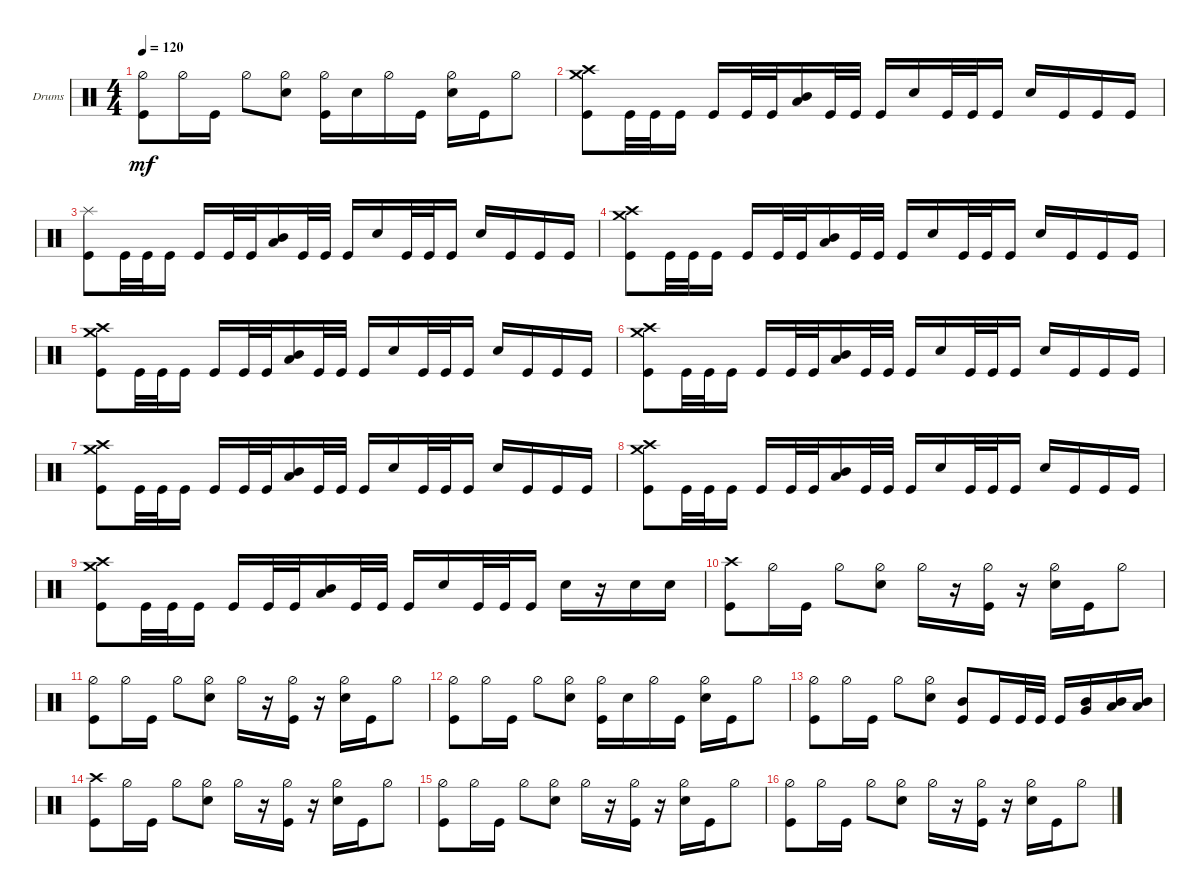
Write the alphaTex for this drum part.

\defaultSystemsLayout 4
\bracketExtendMode groupsimilarinstruments
\firstSystemTrackNameOrientation horizontal
\otherSystemsTrackNameOrientation horizontal
\track ("Drumkit" "Drums") {instrument percussion}
\staff {score}
\articulation defaults
\ts (4 4)
\tempo 120
\clef neutral
\ks c
("Kick (hit)" "Hi-Hat (half)").8{dy mf} "Hi-Hat (half)".16 "Kick (hit)".16 "Hi-Hat (half)".8 ("Snare (hit) 2" "Hi-Hat (half)").8 ("Kick (hit)" "Hi-Hat (half)").16 "Snare (hit) 2".16 "Hi-Hat (half)".16 "Kick (hit)".16 ("Snare (hit) 2" "Hi-Hat (half)").16 "Kick (hit)".16 "Hi-Hat (half)".8 |
("Crash high (hit)" "Crash medium (hit)" "Kick (hit)").8 "Kick (hit)".32 "Kick (hit)".32 "Kick (hit)".16 "Kick (hit)".16 "Kick (hit)".32 "Kick (hit)".32 ("Mid Tom (hit)" "Low Tom (hit)").16 "Kick (hit)".32 "Kick (hit)".32 "Kick (hit)".16 "Snare (hit) 2".16 "Kick (hit)".32 "Kick (hit)".32 "Kick (hit)".16 "Snare (hit) 2".16 "Kick (hit)".16 "Kick (hit)".16 "Kick (hit)".16 |
("Kick (hit)" "Splash (hit)").8 "Kick (hit)".32 "Kick (hit)".32 "Kick (hit)".16 "Kick (hit)".16 "Kick (hit)".32 "Kick (hit)".32 ("Mid Tom (hit)" "Low Tom (hit)").16 "Kick (hit)".32 "Kick (hit)".32 "Kick (hit)".16 "Snare (hit) 2".16 "Kick (hit)".32 "Kick (hit)".32 "Kick (hit)".16 "Snare (hit) 2".16 "Kick (hit)".16 "Kick (hit)".16 "Kick (hit)".16 |
("Crash high (hit)" "Crash medium (hit)" "Kick (hit)").8 "Kick (hit)".32 "Kick (hit)".32 "Kick (hit)".16 "Kick (hit)".16 "Kick (hit)".32 "Kick (hit)".32 ("Mid Tom (hit)" "Low Tom (hit)").16 "Kick (hit)".32 "Kick (hit)".32 "Kick (hit)".16 "Snare (hit) 2".16 "Kick (hit)".32 "Kick (hit)".32 "Kick (hit)".16 "Snare (hit) 2".16 "Kick (hit)".16 "Kick (hit)".16 "Kick (hit)".16 |
("Crash high (hit)" "Crash medium (hit)" "Kick (hit)").8 "Kick (hit)".32 "Kick (hit)".32 "Kick (hit)".16 "Kick (hit)".16 "Kick (hit)".32 "Kick (hit)".32 ("Mid Tom (hit)" "Low Tom (hit)").16 "Kick (hit)".32 "Kick (hit)".32 "Kick (hit)".16 "Snare (hit) 2".16 "Kick (hit)".32 "Kick (hit)".32 "Kick (hit)".16 "Snare (hit) 2".16 "Kick (hit)".16 "Kick (hit)".16 "Kick (hit)".16 |
("Crash high (hit)" "Crash medium (hit)" "Kick (hit)").8 "Kick (hit)".32 "Kick (hit)".32 "Kick (hit)".16 "Kick (hit)".16 "Kick (hit)".32 "Kick (hit)".32 ("Mid Tom (hit)" "Low Tom (hit)").16 "Kick (hit)".32 "Kick (hit)".32 "Kick (hit)".16 "Snare (hit) 2".16 "Kick (hit)".32 "Kick (hit)".32 "Kick (hit)".16 "Snare (hit) 2".16 "Kick (hit)".16 "Kick (hit)".16 "Kick (hit)".16 |
("Crash high (hit)" "Crash medium (hit)" "Kick (hit)").8 "Kick (hit)".32 "Kick (hit)".32 "Kick (hit)".16 "Kick (hit)".16 "Kick (hit)".32 "Kick (hit)".32 ("Mid Tom (hit)" "Low Tom (hit)").16 "Kick (hit)".32 "Kick (hit)".32 "Kick (hit)".16 "Snare (hit) 2".16 "Kick (hit)".32 "Kick (hit)".32 "Kick (hit)".16 "Snare (hit) 2".16 "Kick (hit)".16 "Kick (hit)".16 "Kick (hit)".16 |
("Crash high (hit)" "Crash medium (hit)" "Kick (hit)").8 "Kick (hit)".32 "Kick (hit)".32 "Kick (hit)".16 "Kick (hit)".16 "Kick (hit)".32 "Kick (hit)".32 ("Mid Tom (hit)" "Low Tom (hit)").16 "Kick (hit)".32 "Kick (hit)".32 "Kick (hit)".16 "Snare (hit) 2".16 "Kick (hit)".32 "Kick (hit)".32 "Kick (hit)".16 "Snare (hit) 2".16 "Kick (hit)".16 "Kick (hit)".16 "Kick (hit)".16 |
("Crash high (hit)" "Crash medium (hit)" "Kick (hit)").8 "Kick (hit)".32 "Kick (hit)".32 "Kick (hit)".16 "Kick (hit)".16 "Kick (hit)".32 "Kick (hit)".32 ("Mid Tom (hit)" "Low Tom (hit)").16 "Kick (hit)".32 "Kick (hit)".32 "Kick (hit)".16 "Snare (hit) 2".16 "Kick (hit)".32 "Kick (hit)".32 "Kick (hit)".16 "Snare (hit) 2".16 r.16 "Snare (hit) 2".16 "Snare (hit) 2".16 |
("Crash high (hit)" "Kick (hit)").8 "Hi-Hat (half)".16 "Kick (hit)".16 "Hi-Hat (half)".8 ("Snare (hit) 2" "Hi-Hat (half)").8 "Hi-Hat (half)".16 r.16 ("Hi-Hat (half)" "Kick (hit)").16 r.16 ("Snare (hit) 2" "Hi-Hat (half)").16 "Kick (hit)".16 "Hi-Hat (half)".8 |
("Kick (hit)" "Hi-Hat (half)").8 "Hi-Hat (half)".16 "Kick (hit)".16 "Hi-Hat (half)".8 ("Snare (hit) 2" "Hi-Hat (half)").8 "Hi-Hat (half)".16 r.16 ("Hi-Hat (half)" "Kick (hit)").16 r.16 ("Snare (hit) 2" "Hi-Hat (half)").16 "Kick (hit)".16 "Hi-Hat (half)".8 |
("Kick (hit)" "Hi-Hat (half)").8 "Hi-Hat (half)".16 "Kick (hit)".16 "Hi-Hat (half)".8 ("Snare (hit) 2" "Hi-Hat (half)").8 ("Kick (hit)" "Hi-Hat (half)").16 "Snare (hit) 2".16 "Hi-Hat (half)".16 "Kick (hit)".16 ("Snare (hit) 2" "Hi-Hat (half)").16 "Kick (hit)".16 "Hi-Hat (half)".8 |
("Kick (hit)" "Hi-Hat (half)").8 "Hi-Hat (half)".16 "Kick (hit)".16 "Hi-Hat (half)".8 ("Snare (hit) 2" "Hi-Hat (half)").8 ("Mid Tom (hit)" "Kick (hit)").8 "Kick (hit)".16 "Kick (hit)".32 "Kick (hit)".32 "Kick (hit)".16 ("Very Low Tom (hit)" "Mid Tom (hit)").16 ("Low Tom (hit)" "Mid Tom (hit)").16 ("Low Tom (hit)" "Mid Tom (hit)").16 |
("Crash high (hit)" "Kick (hit)").8 "Hi-Hat (half)".16 "Kick (hit)".16 "Hi-Hat (half)".8 ("Snare (hit) 2" "Hi-Hat (half)").8 "Hi-Hat (half)".16 r.16 ("Hi-Hat (half)" "Kick (hit)").16 r.16 ("Snare (hit) 2" "Hi-Hat (half)").16 "Kick (hit)".16 "Hi-Hat (half)".8 |
("Kick (hit)" "Hi-Hat (half)").8 "Hi-Hat (half)".16 "Kick (hit)".16 "Hi-Hat (half)".8 ("Snare (hit) 2" "Hi-Hat (half)").8 "Hi-Hat (half)".16 r.16 ("Hi-Hat (half)" "Kick (hit)").16 r.16 ("Snare (hit) 2" "Hi-Hat (half)").16 "Kick (hit)".16 "Hi-Hat (half)".8 |
("Kick (hit)" "Hi-Hat (half)").8 "Hi-Hat (half)".16 "Kick (hit)".16 "Hi-Hat (half)".8 ("Snare (hit) 2" "Hi-Hat (half)").8 "Hi-Hat (half)".16 r.16 ("Hi-Hat (half)" "Kick (hit)").16 r.16 ("Snare (hit) 2" "Hi-Hat (half)").16 "Kick (hit)".16 "Hi-Hat (half)".8
